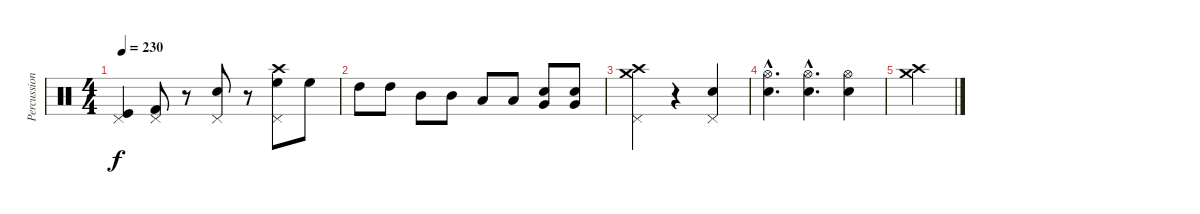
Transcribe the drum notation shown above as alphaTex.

\track ("Percussion" "Percussion") {instrument percussion}
\staff {score}
\articulation defaults
\ts (4 4)
\tempo 230
\clef neutral
\ks c
("Pedal Hi-Hat (hit)" "Kick (hit)").4{dy f} ("Pedal Hi-Hat (hit)" "Kick (hit) 2").8 r.8 ("Pedal Hi-Hat (hit)" "Electric Snare (hit)").8 r.8 ("High Floor Tom (hit)" "Pedal Hi-Hat (hit)" "Crash high (hit)").8 "High Floor Tom (hit)".8 |
"High Tom (hit)".8 "High Tom (hit)".8 "Mid Tom (hit)".8 "Mid Tom (hit)".8 "Low Tom (hit)".8 "Low Tom (hit)".8 ("Very Low Tom (hit)" "Electric Snare (hit)").8 ("Very Low Tom (hit)" "Electric Snare (hit)").8 |
("Crash high (hit)" "Crash medium (hit)" "Pedal Hi-Hat (hit)").4 r.4 ("Pedal Hi-Hat (hit)" "Electric Snare (hit)").4 |
("Hi-Hat (open)"{hac} "Electric Snare (hit)"{hac}).4{d} ("Hi-Hat (open)"{hac} "Electric Snare (hit)"{hac}).4{d} ("Hi-Hat (open)" "Electric Snare (hit)").4 |
("Crash medium (hit)" "Crash high (hit)").4
